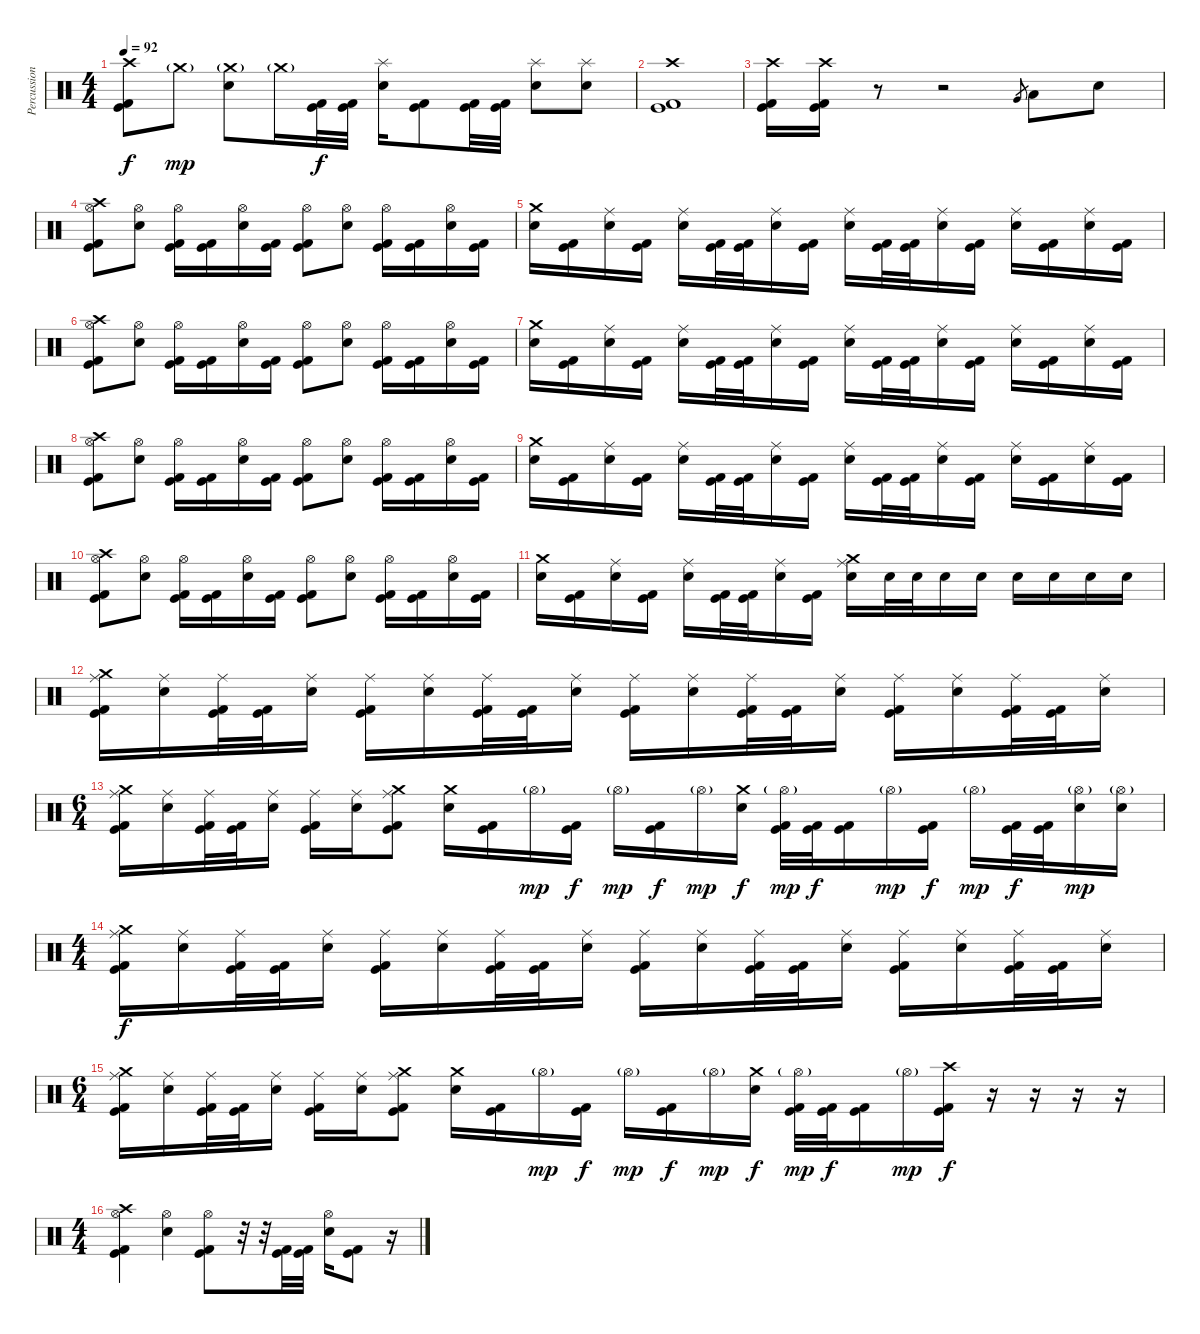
\track ("Percussion" "Percussion") {instrument percussion}
\staff {score}
\articulation defaults
\ts (4 4)
\tempo 92
\clef neutral
\ks c
("Kick (hit) 2" "Kick (hit)" "Crash high (hit)").8{dy f} "Crash medium (hit)"{g}.8{dy mp} ("Electric Snare (hit)" "Crash medium (hit)"{g}).8 "Crash medium (hit)"{g}.16 ("Kick (hit) 2" "Kick (hit)").32{dy f} ("Kick (hit) 2" "Kick (hit)").32 ("Electric Snare (hit)" "Splash (hit)").16 ("Kick (hit) 2" "Kick (hit)").8 ("Kick (hit) 2" "Kick (hit)").32 ("Kick (hit) 2" "Kick (hit)").32 ("Electric Snare (hit)" "Splash (hit)").8 ("Electric Snare (hit)" "Splash (hit)").8 |
("Kick (hit) 2" "Kick (hit)" "Crash high (hit)").1 |
("Kick (hit) 2" "Kick (hit)" "Crash high (hit)").16 ("Kick (hit) 2" "Kick (hit)" "Crash high (hit)").16 r.8 r.2 "Very Low Tom (hit)".8{gr} "Low Tom (hit)".8 "Electric Snare (hit)".8 |
("Kick (hit) 2" "Hi-Hat (open)" "Kick (hit)" "Crash high (hit)").8 ("Electric Snare (hit)" "Hi-Hat (open)").8 ("Kick (hit) 2" "Hi-Hat (open)" "Kick (hit)").16 ("Kick (hit) 2" "Kick (hit)").16 ("Electric Snare (hit)" "Hi-Hat (open)").16 ("Kick (hit) 2" "Kick (hit)").16 ("Kick (hit) 2" "Hi-Hat (open)" "Kick (hit)").8 ("Electric Snare (hit)" "Hi-Hat (open)").8 ("Kick (hit) 2" "Hi-Hat (open)" "Kick (hit)").16 ("Kick (hit) 2" "Kick (hit)").16 ("Electric Snare (hit)" "Hi-Hat (open)").16 ("Kick (hit) 2" "Kick (hit)").16 |
("Electric Snare (hit)" "Crash medium (hit)").16 ("Kick (hit) 2" "Kick (hit)").16 ("Electric Snare (hit)" "Ride (middle)").16 ("Kick (hit) 2" "Kick (hit)").16 ("Electric Snare (hit)" "Ride (middle)").16 ("Kick (hit) 2" "Kick (hit)").32 ("Kick (hit) 2" "Kick (hit)").32 ("Electric Snare (hit)" "Ride (middle)").16 ("Kick (hit) 2" "Kick (hit)").16 ("Electric Snare (hit)" "Ride (middle)").16 ("Kick (hit) 2" "Kick (hit)").32 ("Kick (hit) 2" "Kick (hit)").32 ("Electric Snare (hit)" "Ride (middle)").16 ("Kick (hit) 2" "Kick (hit)").16 ("Electric Snare (hit)" "Ride (middle)").16 ("Kick (hit) 2" "Kick (hit)").16 ("Electric Snare (hit)" "Ride (middle)").16 ("Kick (hit) 2" "Kick (hit)").16 |
("Kick (hit) 2" "Hi-Hat (open)" "Kick (hit)" "Crash high (hit)").8 ("Electric Snare (hit)" "Hi-Hat (open)").8 ("Kick (hit) 2" "Hi-Hat (open)" "Kick (hit)").16 ("Kick (hit) 2" "Kick (hit)").16 ("Electric Snare (hit)" "Hi-Hat (open)").16 ("Kick (hit) 2" "Kick (hit)").16 ("Kick (hit) 2" "Hi-Hat (open)" "Kick (hit)").8 ("Electric Snare (hit)" "Hi-Hat (open)").8 ("Kick (hit) 2" "Hi-Hat (open)" "Kick (hit)").16 ("Kick (hit) 2" "Kick (hit)").16 ("Electric Snare (hit)" "Hi-Hat (open)").16 ("Kick (hit) 2" "Kick (hit)").16 |
("Electric Snare (hit)" "Crash medium (hit)").16 ("Kick (hit) 2" "Kick (hit)").16 ("Electric Snare (hit)" "Ride (middle)").16 ("Kick (hit) 2" "Kick (hit)").16 ("Electric Snare (hit)" "Ride (middle)").16 ("Kick (hit) 2" "Kick (hit)").32 ("Kick (hit) 2" "Kick (hit)").32 ("Electric Snare (hit)" "Ride (middle)").16 ("Kick (hit) 2" "Kick (hit)").16 ("Electric Snare (hit)" "Ride (middle)").16 ("Kick (hit) 2" "Kick (hit)").32 ("Kick (hit) 2" "Kick (hit)").32 ("Electric Snare (hit)" "Ride (middle)").16 ("Kick (hit) 2" "Kick (hit)").16 ("Electric Snare (hit)" "Ride (middle)").16 ("Kick (hit) 2" "Kick (hit)").16 ("Electric Snare (hit)" "Ride (middle)").16 ("Kick (hit) 2" "Kick (hit)").16 |
("Kick (hit) 2" "Hi-Hat (open)" "Kick (hit)" "Crash high (hit)").8 ("Electric Snare (hit)" "Hi-Hat (open)").8 ("Kick (hit) 2" "Hi-Hat (open)" "Kick (hit)").16 ("Kick (hit) 2" "Kick (hit)").16 ("Electric Snare (hit)" "Hi-Hat (open)").16 ("Kick (hit) 2" "Kick (hit)").16 ("Kick (hit) 2" "Hi-Hat (open)" "Kick (hit)").8 ("Electric Snare (hit)" "Hi-Hat (open)").8 ("Kick (hit) 2" "Hi-Hat (open)" "Kick (hit)").16 ("Kick (hit) 2" "Kick (hit)").16 ("Electric Snare (hit)" "Hi-Hat (open)").16 ("Kick (hit) 2" "Kick (hit)").16 |
("Electric Snare (hit)" "Crash medium (hit)").16 ("Kick (hit) 2" "Kick (hit)").16 ("Electric Snare (hit)" "Ride (middle)").16 ("Kick (hit) 2" "Kick (hit)").16 ("Electric Snare (hit)" "Ride (middle)").16 ("Kick (hit) 2" "Kick (hit)").32 ("Kick (hit) 2" "Kick (hit)").32 ("Electric Snare (hit)" "Ride (middle)").16 ("Kick (hit) 2" "Kick (hit)").16 ("Electric Snare (hit)" "Ride (middle)").16 ("Kick (hit) 2" "Kick (hit)").32 ("Kick (hit) 2" "Kick (hit)").32 ("Electric Snare (hit)" "Ride (middle)").16 ("Kick (hit) 2" "Kick (hit)").16 ("Electric Snare (hit)" "Ride (middle)").16 ("Kick (hit) 2" "Kick (hit)").16 ("Electric Snare (hit)" "Ride (middle)").16 ("Kick (hit) 2" "Kick (hit)").16 |
("Kick (hit) 2" "Hi-Hat (open)" "Kick (hit)" "Crash high (hit)").8 ("Electric Snare (hit)" "Hi-Hat (open)").8 ("Kick (hit) 2" "Hi-Hat (open)" "Kick (hit)").16 ("Kick (hit) 2" "Kick (hit)").16 ("Electric Snare (hit)" "Hi-Hat (open)").16 ("Kick (hit) 2" "Kick (hit)").16 ("Kick (hit) 2" "Hi-Hat (open)" "Kick (hit)").8 ("Electric Snare (hit)" "Hi-Hat (open)").8 ("Kick (hit) 2" "Hi-Hat (open)" "Kick (hit)").16 ("Kick (hit) 2" "Kick (hit)").16 ("Electric Snare (hit)" "Hi-Hat (open)").16 ("Kick (hit) 2" "Kick (hit)").16 |
("Electric Snare (hit)" "Crash medium (hit)").16 ("Kick (hit) 2" "Kick (hit)").16 ("Electric Snare (hit)" "Ride (middle)").16 ("Kick (hit) 2" "Kick (hit)").16 ("Electric Snare (hit)" "Ride (middle)").16 ("Kick (hit) 2" "Kick (hit)").32 ("Kick (hit) 2" "Kick (hit)").32 ("Electric Snare (hit)" "Ride (middle)").16 ("Kick (hit) 2" "Kick (hit)").16 ("Electric Snare (hit)" "Ride (middle)" "Crash medium (hit)").16 "Electric Snare (hit)".32 "Electric Snare (hit)".32 "Electric Snare (hit)".16 "Electric Snare (hit)".16 "Electric Snare (hit)".16 "Electric Snare (hit)".16 "Electric Snare (hit)".16 "Electric Snare (hit)".16 |
("Kick (hit) 2" "Ride (middle)" "Crash medium (hit)" "Kick (hit)").16 ("Electric Snare (hit)" "Ride (middle)").16 ("Kick (hit) 2" "Ride (middle)" "Kick (hit)").32 ("Kick (hit) 2" "Kick (hit)").32 ("Electric Snare (hit)" "Ride (middle)").16 ("Kick (hit) 2" "Ride (middle)" "Kick (hit)").16 ("Electric Snare (hit)" "Ride (middle)").16 ("Kick (hit) 2" "Ride (middle)" "Kick (hit)").32 ("Kick (hit) 2" "Kick (hit)").32 ("Electric Snare (hit)" "Ride (middle)").16 ("Kick (hit) 2" "Ride (middle)" "Kick (hit)").16 ("Electric Snare (hit)" "Ride (middle)").16 ("Kick (hit) 2" "Ride (middle)" "Kick (hit)").32 ("Kick (hit) 2" "Kick (hit)").32 ("Electric Snare (hit)" "Ride (middle)").16 ("Kick (hit) 2" "Ride (middle)" "Kick (hit)").16 ("Electric Snare (hit)" "Ride (middle)").16 ("Kick (hit) 2" "Ride (middle)" "Kick (hit)").32 ("Kick (hit) 2" "Kick (hit)").32 ("Electric Snare (hit)" "Ride (middle)").16 |
\ts (6 4)
("Kick (hit) 2" "Ride (middle)" "Crash medium (hit)" "Kick (hit)").16 ("Electric Snare (hit)" "Ride (middle)").16 ("Kick (hit) 2" "Ride (middle)" "Kick (hit)").32 ("Kick (hit) 2" "Kick (hit)").32 ("Electric Snare (hit)" "Ride (middle)").16 ("Kick (hit) 2" "Ride (middle)" "Kick (hit)").16 ("Electric Snare (hit)" "Ride (middle)").16 ("Kick (hit) 2" "Ride (middle)" "Crash medium (hit)" "Kick (hit)").8 ("Electric Snare (hit)" "Crash medium (hit)").16 ("Kick (hit) 2" "Kick (hit)").16 "Hi-Hat (open)"{g}.16{dy mp} ("Kick (hit) 2" "Kick (hit)").16{dy f} "Hi-Hat (open)"{g}.16{dy mp} ("Kick (hit) 2" "Kick (hit)").16{dy f} "Hi-Hat (open)"{g}.16{dy mp} ("Electric Snare (hit)" "Crash medium (hit)").16{dy f} ("Kick (hit) 2" "Hi-Hat (open)"{g} "Kick (hit)").32{dy mp} ("Kick (hit) 2" "Kick (hit)").32{dy f} ("Kick (hit) 2" "Kick (hit)").16 "Hi-Hat (open)"{g}.16{dy mp} ("Kick (hit) 2" "Kick (hit)").16{dy f} "Hi-Hat (open)"{g}.16{dy mp} ("Kick (hit) 2" "Kick (hit)").32{dy f} ("Kick (hit) 2" "Kick (hit)").32 ("Electric Snare (hit)" "Hi-Hat (open)"{g}).16{dy mp} ("Electric Snare (hit)" "Hi-Hat (open)"{g}).16 |
\ts (4 4)
("Kick (hit) 2" "Ride (middle)" "Crash medium (hit)" "Kick (hit)").16{dy f} ("Electric Snare (hit)" "Ride (middle)").16 ("Kick (hit) 2" "Ride (middle)" "Kick (hit)").32 ("Kick (hit) 2" "Kick (hit)").32 ("Electric Snare (hit)" "Ride (middle)").16 ("Kick (hit) 2" "Ride (middle)" "Kick (hit)").16 ("Electric Snare (hit)" "Ride (middle)").16 ("Kick (hit) 2" "Ride (middle)" "Kick (hit)").32 ("Kick (hit) 2" "Kick (hit)").32 ("Electric Snare (hit)" "Ride (middle)").16 ("Kick (hit) 2" "Ride (middle)" "Kick (hit)").16 ("Electric Snare (hit)" "Ride (middle)").16 ("Kick (hit) 2" "Ride (middle)" "Kick (hit)").32 ("Kick (hit) 2" "Kick (hit)").32 ("Electric Snare (hit)" "Ride (middle)").16 ("Kick (hit) 2" "Ride (middle)" "Kick (hit)").16 ("Electric Snare (hit)" "Ride (middle)").16 ("Kick (hit) 2" "Ride (middle)" "Kick (hit)").32 ("Kick (hit) 2" "Kick (hit)").32 ("Electric Snare (hit)" "Ride (middle)").16 |
\ts (6 4)
("Kick (hit) 2" "Ride (middle)" "Crash medium (hit)" "Kick (hit)").16 ("Electric Snare (hit)" "Ride (middle)").16 ("Kick (hit) 2" "Ride (middle)" "Kick (hit)").32 ("Kick (hit) 2" "Kick (hit)").32 ("Electric Snare (hit)" "Ride (middle)").16 ("Kick (hit) 2" "Ride (middle)" "Kick (hit)").16 ("Electric Snare (hit)" "Ride (middle)").16 ("Kick (hit) 2" "Ride (middle)" "Crash medium (hit)" "Kick (hit)").8 ("Electric Snare (hit)" "Crash medium (hit)").16 ("Kick (hit) 2" "Kick (hit)").16 "Hi-Hat (open)"{g}.16{dy mp} ("Kick (hit) 2" "Kick (hit)").16{dy f} "Hi-Hat (open)"{g}.16{dy mp} ("Kick (hit) 2" "Kick (hit)").16{dy f} "Hi-Hat (open)"{g}.16{dy mp} ("Electric Snare (hit)" "Crash medium (hit)").16{dy f} ("Kick (hit) 2" "Hi-Hat (open)"{g} "Kick (hit)").32{dy mp} ("Kick (hit) 2" "Kick (hit)").32{dy f} ("Kick (hit) 2" "Kick (hit)").16 "Hi-Hat (open)"{g}.16{dy mp} ("Kick (hit) 2" "Crash high (hit)" "Kick (hit)").16{dy f} r.16 r.16 r.16 r.16 |
\ts (4 4)
("Kick (hit) 2" "Hi-Hat (open)" "Crash high (hit)" "Kick (hit)").4 ("Electric Snare (hit)" "Hi-Hat (open)").4 ("Kick (hit) 2" "Hi-Hat (open)" "Kick (hit)").8 r.32 r.32 ("Kick (hit) 2" "Kick (hit)").32 ("Kick (hit) 2" "Kick (hit)").32 ("Electric Snare (hit)" "Hi-Hat (open)").16 ("Kick (hit) 2" "Kick (hit)").8 r.16
